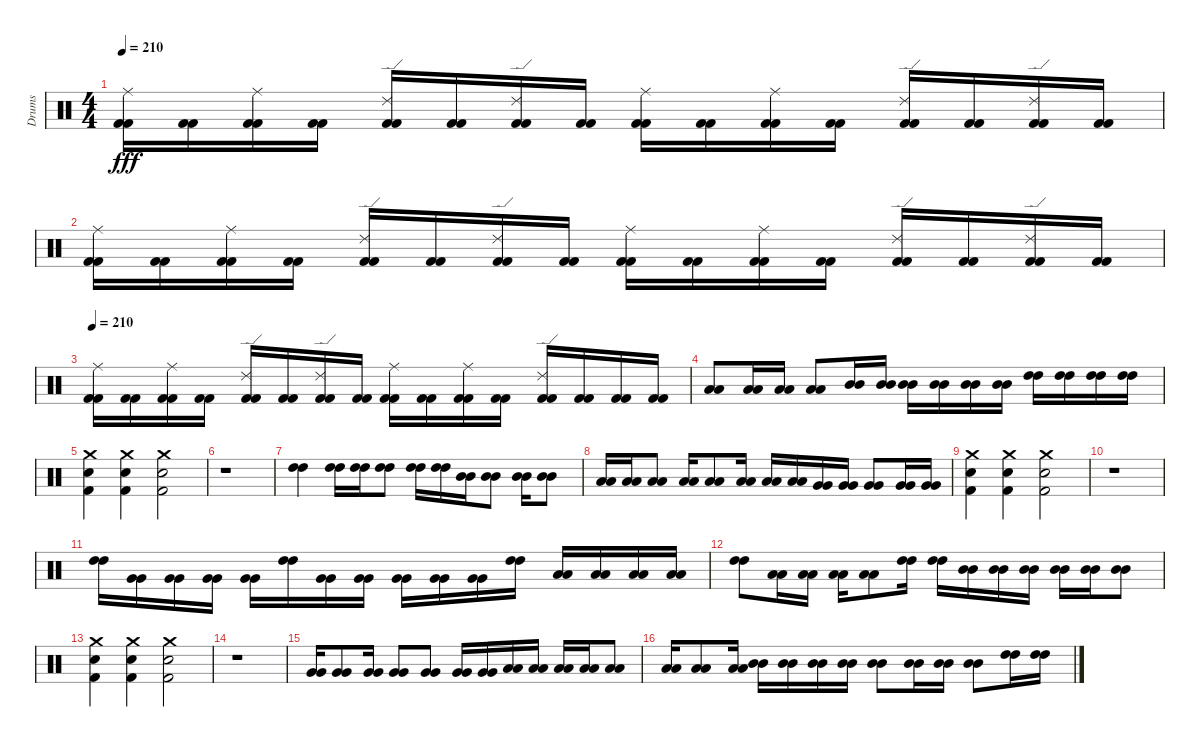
\track ("Drums" "Drums") {instrument percussion}
\staff {score}
\articulation defaults
\ts (4 4)
\tempo 210
\clef neutral
\ks c
("Kick (hit) 2" "Kick (hit) 2" "Ride (middle)").16{dy fff} ("Kick (hit) 2" "Kick (hit) 2").16 ("Kick (hit) 2" "Kick (hit) 2" "Ride (middle)").16 ("Kick (hit) 2" "Kick (hit) 2").16 ("Kick (hit) 2" "Kick (hit) 2" "Ride (edge) 2").16 ("Kick (hit) 2" "Kick (hit) 2").16 ("Kick (hit) 2" "Kick (hit) 2" "Ride (edge) 2").16 ("Kick (hit) 2" "Kick (hit) 2").16 ("Kick (hit) 2" "Kick (hit) 2" "Ride (middle)").16 ("Kick (hit) 2" "Kick (hit) 2").16 ("Kick (hit) 2" "Kick (hit) 2" "Ride (middle)").16 ("Kick (hit) 2" "Kick (hit) 2").16 ("Kick (hit) 2" "Kick (hit) 2" "Ride (edge) 2").16 ("Kick (hit) 2" "Kick (hit) 2").16 ("Kick (hit) 2" "Kick (hit) 2" "Ride (edge) 2").16 ("Kick (hit) 2" "Kick (hit) 2").16 |
("Kick (hit) 2" "Kick (hit) 2" "Ride (middle)").16 ("Kick (hit) 2" "Kick (hit) 2").16 ("Kick (hit) 2" "Kick (hit) 2" "Ride (middle)").16 ("Kick (hit) 2" "Kick (hit) 2").16 ("Kick (hit) 2" "Kick (hit) 2" "Ride (edge) 2").16 ("Kick (hit) 2" "Kick (hit) 2").16 ("Kick (hit) 2" "Kick (hit) 2" "Ride (edge) 2").16 ("Kick (hit) 2" "Kick (hit) 2").16 ("Kick (hit) 2" "Kick (hit) 2" "Ride (middle)").16 ("Kick (hit) 2" "Kick (hit) 2").16 ("Kick (hit) 2" "Kick (hit) 2" "Ride (middle)").16 ("Kick (hit) 2" "Kick (hit) 2").16 ("Kick (hit) 2" "Kick (hit) 2" "Ride (edge) 2").16 ("Kick (hit) 2" "Kick (hit) 2").16 ("Kick (hit) 2" "Kick (hit) 2" "Ride (edge) 2").16 ("Kick (hit) 2" "Kick (hit) 2").16 |
\tempo 210
("Kick (hit) 2" "Kick (hit) 2" "Ride (middle)").16 ("Kick (hit) 2" "Kick (hit) 2").16 ("Kick (hit) 2" "Kick (hit) 2" "Ride (middle)").16 ("Kick (hit) 2" "Kick (hit) 2").16 ("Kick (hit) 2" "Kick (hit) 2" "Ride (edge) 2").16 ("Kick (hit) 2" "Kick (hit) 2").16 ("Kick (hit) 2" "Kick (hit) 2" "Ride (edge) 2").16 ("Kick (hit) 2" "Kick (hit) 2").16 ("Kick (hit) 2" "Kick (hit) 2" "Ride (middle)").16 ("Kick (hit) 2" "Kick (hit) 2").16 ("Kick (hit) 2" "Kick (hit) 2" "Ride (middle)").16 ("Kick (hit) 2" "Kick (hit) 2").16 ("Kick (hit) 2" "Kick (hit) 2" "Ride (edge) 2").16 ("Kick (hit) 2" "Kick (hit) 2").16 ("Kick (hit) 2" "Kick (hit) 2").16 ("Kick (hit) 2" "Kick (hit) 2").16 |
("Low Tom (hit)" "Low Tom (hit)").8 ("Low Tom (hit)" "Low Tom (hit)").16 ("Low Tom (hit)" "Low Tom (hit)").16 ("Low Tom (hit)" "Low Tom (hit)").8 ("Mid Tom (hit)" "Mid Tom (hit)").16 ("Mid Tom (hit)" "Mid Tom (hit)").16 ("Mid Tom (hit)" "Mid Tom (hit)").16 ("Mid Tom (hit)" "Mid Tom (hit)").16 ("Mid Tom (hit)" "Mid Tom (hit)").16 ("Mid Tom (hit)" "Mid Tom (hit)").16 ("High Tom (hit)" "High Tom (hit)").16 ("High Tom (hit)" "High Tom (hit)").16 ("High Tom (hit)" "High Tom (hit)").16 ("High Tom (hit)" "High Tom (hit)").16 |
("Electric Snare (hit)" "Crash medium (hit)" "Kick (hit) 2").4 ("Electric Snare (hit)" "Crash medium (hit)" "Kick (hit) 2").4 ("Electric Snare (hit)" "Crash medium (hit)" "Kick (hit) 2").2 |
r.1 |
("High Tom (hit)" "High Tom (hit)").4 ("High Tom (hit)" "High Tom (hit)").16 ("High Tom (hit)" "High Tom (hit)").16 ("High Tom (hit)" "High Tom (hit)").8 ("High Tom (hit)" "High Tom (hit)").16 ("High Tom (hit)" "High Tom (hit)").16 ("Mid Tom (hit)" "Mid Tom (hit)").16 ("Mid Tom (hit)" "Mid Tom (hit)").8 ("Mid Tom (hit)" "Mid Tom (hit)").16 ("Mid Tom (hit)" "Mid Tom (hit)").8 |
("Low Tom (hit)" "Low Tom (hit)").16 ("Low Tom (hit)" "Low Tom (hit)").16 ("Low Tom (hit)" "Low Tom (hit)").8 ("Low Tom (hit)" "Low Tom (hit)").16 ("Low Tom (hit)" "Low Tom (hit)").8 ("Low Tom (hit)" "Low Tom (hit)").16 ("Low Tom (hit)" "Low Tom (hit)").16 ("Low Tom (hit)" "Low Tom (hit)").16 ("Very Low Tom (hit)" "Very Low Tom (hit)").16 ("Very Low Tom (hit)" "Very Low Tom (hit)").16 ("Very Low Tom (hit)" "Very Low Tom (hit)").8 ("Very Low Tom (hit)" "Very Low Tom (hit)").16 ("Very Low Tom (hit)" "Very Low Tom (hit)").16 |
("Electric Snare (hit)" "Crash medium (hit)" "Kick (hit) 2").4 ("Electric Snare (hit)" "Crash medium (hit)" "Kick (hit) 2").4 ("Electric Snare (hit)" "Crash medium (hit)" "Kick (hit) 2").2 |
r.1 |
("High Tom (hit)" "High Tom (hit)").16 ("Very Low Tom (hit)" "Very Low Tom (hit)").16 ("Very Low Tom (hit)" "Very Low Tom (hit)").16 ("Very Low Tom (hit)" "Very Low Tom (hit)").16 ("Very Low Tom (hit)" "Very Low Tom (hit)").16 ("High Tom (hit)" "High Tom (hit)").16 ("Very Low Tom (hit)" "Very Low Tom (hit)").16 ("Very Low Tom (hit)" "Very Low Tom (hit)").16 ("Very Low Tom (hit)" "Very Low Tom (hit)").16 ("Very Low Tom (hit)" "Very Low Tom (hit)").16 ("Very Low Tom (hit)" "Very Low Tom (hit)").16 ("High Tom (hit)" "High Tom (hit)").16 ("Low Tom (hit)" "Low Tom (hit)").16 ("Low Tom (hit)" "Low Tom (hit)").16 ("Low Tom (hit)" "Low Tom (hit)").16 ("Low Tom (hit)" "Low Tom (hit)").16 |
("High Tom (hit)" "High Tom (hit)").8 ("Low Tom (hit)" "Low Tom (hit)").16 ("Low Tom (hit)" "Low Tom (hit)").16 ("Low Tom (hit)" "Low Tom (hit)").16 ("Low Tom (hit)" "Low Tom (hit)").8 ("High Tom (hit)" "High Tom (hit)").16 ("High Tom (hit)" "High Tom (hit)").16 ("Mid Tom (hit)" "Mid Tom (hit)").16 ("Mid Tom (hit)" "Mid Tom (hit)").16 ("Mid Tom (hit)" "Mid Tom (hit)").16 ("Mid Tom (hit)" "Mid Tom (hit)").16 ("Mid Tom (hit)" "Mid Tom (hit)").16 ("Mid Tom (hit)" "Mid Tom (hit)").8 |
("Electric Snare (hit)" "Crash medium (hit)" "Kick (hit) 2").4 ("Electric Snare (hit)" "Crash medium (hit)" "Kick (hit) 2").4 ("Electric Snare (hit)" "Crash medium (hit)" "Kick (hit) 2").2 |
r.1 |
("Very Low Tom (hit)" "Very Low Tom (hit)").16 ("Very Low Tom (hit)" "Very Low Tom (hit)").8 ("Very Low Tom (hit)" "Very Low Tom (hit)").16 ("Very Low Tom (hit)" "Very Low Tom (hit)").8 ("Very Low Tom (hit)" "Very Low Tom (hit)").8 ("Very Low Tom (hit)" "Very Low Tom (hit)").16 ("Very Low Tom (hit)" "Very Low Tom (hit)").16 ("Low Tom (hit)" "Low Tom (hit)").16 ("Low Tom (hit)" "Low Tom (hit)").16 ("Low Tom (hit)" "Low Tom (hit)").16 ("Low Tom (hit)" "Low Tom (hit)").16 ("Low Tom (hit)" "Low Tom (hit)").8 |
("Low Tom (hit)" "Low Tom (hit)").16 ("Low Tom (hit)" "Low Tom (hit)").8 ("Low Tom (hit)" "Low Tom (hit)").16 ("Mid Tom (hit)" "Mid Tom (hit)").16 ("Mid Tom (hit)" "Mid Tom (hit)").16 ("Mid Tom (hit)" "Mid Tom (hit)").16 ("Mid Tom (hit)" "Mid Tom (hit)").16 ("Mid Tom (hit)" "Mid Tom (hit)").8 ("Mid Tom (hit)" "Mid Tom (hit)").16 ("Mid Tom (hit)" "Mid Tom (hit)").16 ("Mid Tom (hit)" "Mid Tom (hit)").8 ("High Tom (hit)" "High Tom (hit)").16 ("High Tom (hit)" "High Tom (hit)").16
